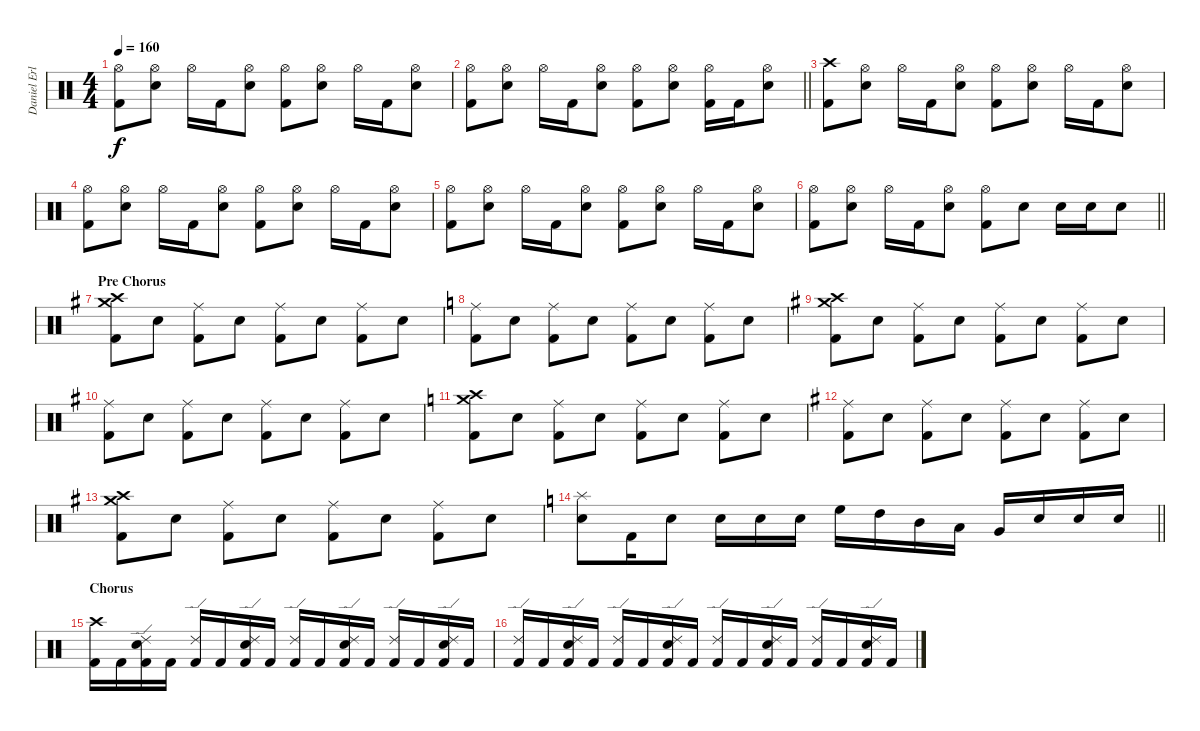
\track ("Daniel Erlandsson" "Daniel Erl") {instrument percussion}
\staff {score}
\articulation defaults
\ts (4 4)
\tempo 160
\clef neutral
\ks c
("Hi-Hat (open)" "Kick (hit) 2").8{dy f} ("Hi-Hat (open)" "Electric Snare (hit)").8 "Hi-Hat (open)".16 "Kick (hit) 2".16 ("Hi-Hat (open)" "Electric Snare (hit)").8 ("Hi-Hat (open)" "Kick (hit) 2").8 ("Hi-Hat (open)" "Electric Snare (hit)").8 "Hi-Hat (open)".16 "Kick (hit) 2".16 ("Hi-Hat (open)" "Electric Snare (hit)").8 |
\barLineRight lightlight
("Hi-Hat (open)" "Kick (hit) 2").8 ("Hi-Hat (open)" "Electric Snare (hit)").8 "Hi-Hat (open)".16 "Kick (hit) 2".16 ("Hi-Hat (open)" "Electric Snare (hit)").8 ("Hi-Hat (open)" "Kick (hit) 2").8 ("Hi-Hat (open)" "Electric Snare (hit)").8 ("Hi-Hat (open)" "Kick (hit) 2").16 "Kick (hit) 2".16 ("Hi-Hat (open)" "Electric Snare (hit)").8 |
("Crash high (hit)" "Kick (hit) 2").8 ("Hi-Hat (open)" "Electric Snare (hit)").8 "Hi-Hat (open)".16 "Kick (hit) 2".16 ("Hi-Hat (open)" "Electric Snare (hit)").8 ("Hi-Hat (open)" "Kick (hit) 2").8 ("Hi-Hat (open)" "Electric Snare (hit)").8 "Hi-Hat (open)".16 "Kick (hit) 2".16 ("Hi-Hat (open)" "Electric Snare (hit)").8 |
("Hi-Hat (open)" "Kick (hit) 2").8 ("Hi-Hat (open)" "Electric Snare (hit)").8 "Hi-Hat (open)".16 "Kick (hit) 2".16 ("Hi-Hat (open)" "Electric Snare (hit)").8 ("Hi-Hat (open)" "Kick (hit) 2").8 ("Hi-Hat (open)" "Electric Snare (hit)").8 "Hi-Hat (open)".16 "Kick (hit) 2".16 ("Hi-Hat (open)" "Electric Snare (hit)").8 |
("Hi-Hat (open)" "Kick (hit) 2").8 ("Hi-Hat (open)" "Electric Snare (hit)").8 "Hi-Hat (open)".16 "Kick (hit) 2".16 ("Hi-Hat (open)" "Electric Snare (hit)").8 ("Hi-Hat (open)" "Kick (hit) 2").8 ("Hi-Hat (open)" "Electric Snare (hit)").8 "Hi-Hat (open)".16 "Kick (hit) 2".16 ("Hi-Hat (open)" "Electric Snare (hit)").8 |
\barLineRight lightlight
("Hi-Hat (open)" "Kick (hit) 2").8 ("Hi-Hat (open)" "Electric Snare (hit)").8 "Hi-Hat (open)".16 "Kick (hit) 2".16 ("Hi-Hat (open)" "Electric Snare (hit)").8 ("Hi-Hat (open)" "Kick (hit) 2").8 "Electric Snare (hit)".8 "Electric Snare (hit)".16 "Electric Snare (hit)".16 "Electric Snare (hit)".8 |
\section ("" "Pre Chorus")
\ks g
("Crash medium (hit)" "Crash high (hit)" "Kick (hit) 2").8 "Electric Snare (hit)".8 ("Ride (middle)" "Kick (hit) 2").8 "Electric Snare (hit)".8 ("Ride (middle)" "Kick (hit) 2").8 "Electric Snare (hit)".8 ("Ride (middle)" "Kick (hit) 2").8 "Electric Snare (hit)".8 |
\ks c
("Ride (middle)" "Kick (hit) 2").8 "Electric Snare (hit)".8 ("Ride (middle)" "Kick (hit) 2").8 "Electric Snare (hit)".8 ("Ride (middle)" "Kick (hit) 2").8 "Electric Snare (hit)".8 ("Ride (middle)" "Kick (hit) 2").8 "Electric Snare (hit)".8 |
\ks g
("Crash medium (hit)" "Crash high (hit)" "Kick (hit) 2").8 "Electric Snare (hit)".8 ("Ride (middle)" "Kick (hit) 2").8 "Electric Snare (hit)".8 ("Ride (middle)" "Kick (hit) 2").8 "Electric Snare (hit)".8 ("Ride (middle)" "Kick (hit) 2").8 "Electric Snare (hit)".8 |
("Ride (middle)" "Kick (hit) 2").8 "Electric Snare (hit)".8 ("Ride (middle)" "Kick (hit) 2").8 "Electric Snare (hit)".8 ("Ride (middle)" "Kick (hit) 2").8 "Electric Snare (hit)".8 ("Ride (middle)" "Kick (hit) 2").8 "Electric Snare (hit)".8 |
\ks c
("Crash medium (hit)" "Crash high (hit)" "Kick (hit) 2").8 "Electric Snare (hit)".8 ("Ride (middle)" "Kick (hit) 2").8 "Electric Snare (hit)".8 ("Ride (middle)" "Kick (hit) 2").8 "Electric Snare (hit)".8 ("Ride (middle)" "Kick (hit) 2").8 "Electric Snare (hit)".8 |
\ks g
("Ride (middle)" "Kick (hit) 2").8 "Electric Snare (hit)".8 ("Ride (middle)" "Kick (hit) 2").8 "Electric Snare (hit)".8 ("Ride (middle)" "Kick (hit) 2").8 "Electric Snare (hit)".8 ("Ride (middle)" "Kick (hit) 2").8 "Electric Snare (hit)".8 |
("Crash medium (hit)" "Crash high (hit)" "Kick (hit) 2").8 "Electric Snare (hit)".8 ("Ride (middle)" "Kick (hit) 2").8 "Electric Snare (hit)".8 ("Ride (middle)" "Kick (hit) 2").8 "Electric Snare (hit)".8 ("Ride (middle)" "Kick (hit) 2").8 "Electric Snare (hit)".8 |
\barLineRight lightlight
\ks c
("Splash (hit)" "Electric Snare (hit)").8 "Kick (hit) 2".16 "Electric Snare (hit)".8 "Electric Snare (hit)".16 "Electric Snare (hit)".16 "Electric Snare (hit)".16 "High Floor Tom (hit)".16 "High Tom (hit)".16 "Mid Tom (hit)".16 "Low Tom (hit)".16 "Very Low Tom (hit)".16 "Electric Snare (hit)".16 "Electric Snare (hit)".16 "Electric Snare (hit)".16 |
\section ("" "Chorus")
("Crash high (hit)" "Kick (hit) 2").16 "Kick (hit) 2".16 ("Ride (edge) 2" "Electric Snare (hit)" "Kick (hit) 2").16 "Kick (hit) 2".16 ("Ride (edge) 2" "Kick (hit) 2").16 "Kick (hit) 2".16 ("Ride (edge) 2" "Electric Snare (hit)" "Kick (hit) 2").16 "Kick (hit) 2".16 ("Ride (edge) 2" "Kick (hit) 2").16 "Kick (hit) 2".16 ("Ride (edge) 2" "Electric Snare (hit)" "Kick (hit) 2").16 "Kick (hit) 2".16 ("Ride (edge) 2" "Kick (hit) 2").16 "Kick (hit) 2".16 ("Ride (edge) 2" "Electric Snare (hit)" "Kick (hit) 2").16 "Kick (hit) 2".16 |
("Ride (edge) 2" "Kick (hit) 2").16 "Kick (hit) 2".16 ("Ride (edge) 2" "Electric Snare (hit)" "Kick (hit) 2").16 "Kick (hit) 2".16 ("Ride (edge) 2" "Kick (hit) 2").16 "Kick (hit) 2".16 ("Ride (edge) 2" "Electric Snare (hit)" "Kick (hit) 2").16 "Kick (hit) 2".16 ("Ride (edge) 2" "Kick (hit) 2").16 "Kick (hit) 2".16 ("Ride (edge) 2" "Electric Snare (hit)" "Kick (hit) 2").16 "Kick (hit) 2".16 ("Ride (edge) 2" "Kick (hit) 2").16 "Kick (hit) 2".16 ("Ride (edge) 2" "Electric Snare (hit)" "Kick (hit) 2").16 "Kick (hit) 2".16
